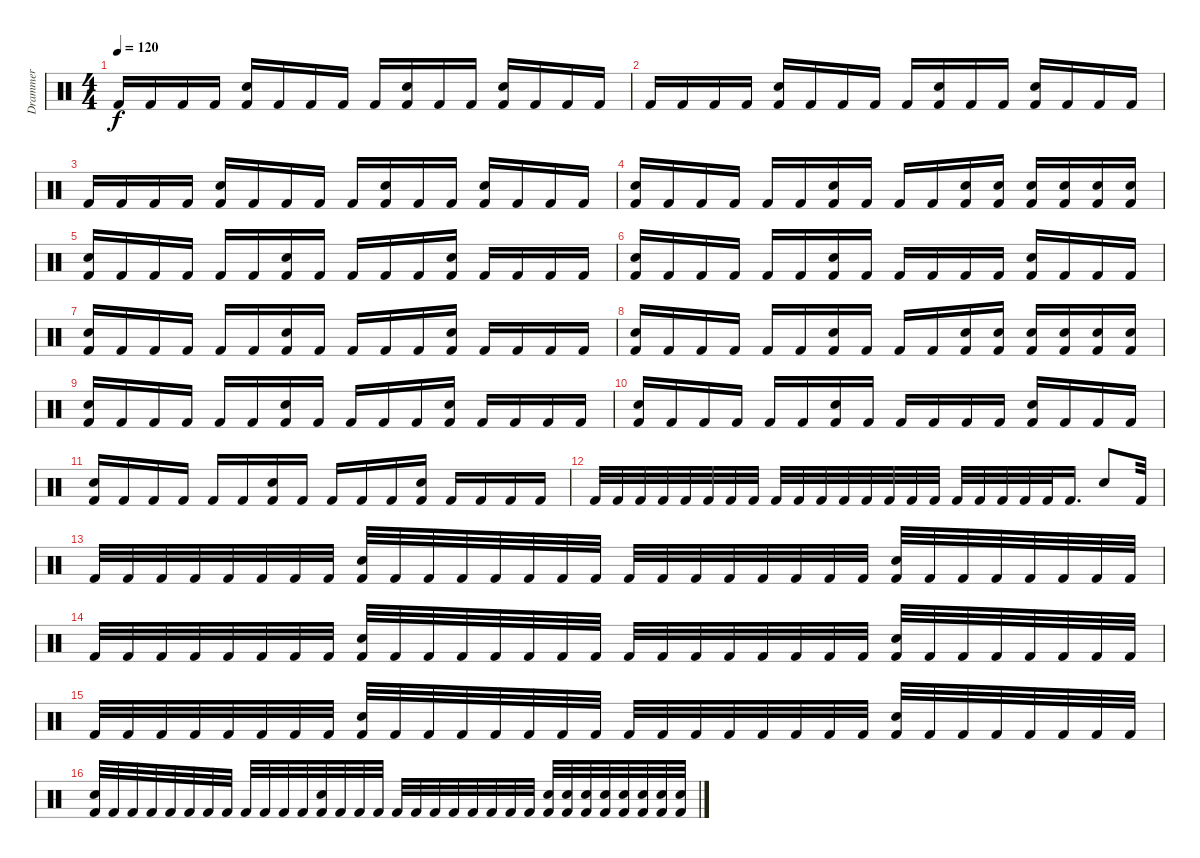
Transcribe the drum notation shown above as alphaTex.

\track ("Drammer" "Drammer") {instrument percussion}
\staff {score}
\articulation defaults
\ts (4 4)
\tempo 120
\clef neutral
\ks c "Kick (hit) 2".16{dy f} "Kick (hit) 2".16 "Kick (hit) 2".16 "Kick (hit) 2".16
("Snare (hit) 2" "Kick (hit) 2").16 "Kick (hit) 2".16 "Kick (hit) 2".16 "Kick (hit) 2".16 "Kick (hit) 2".16 ("Snare (hit) 2" "Kick (hit) 2").16 "Kick (hit) 2".16 "Kick (hit) 2".16 ("Snare (hit) 2" "Kick (hit) 2").16 "Kick (hit) 2".16 "Kick (hit) 2".16 "Kick (hit) 2".16 |
"Kick (hit) 2".16 "Kick (hit) 2".16 "Kick (hit) 2".16 "Kick (hit) 2".16 ("Snare (hit) 2" "Kick (hit) 2").16 "Kick (hit) 2".16 "Kick (hit) 2".16 "Kick (hit) 2".16 "Kick (hit) 2".16 ("Snare (hit) 2" "Kick (hit) 2").16 "Kick (hit) 2".16 "Kick (hit) 2".16 ("Snare (hit) 2" "Kick (hit) 2").16 "Kick (hit) 2".16 "Kick (hit) 2".16 "Kick (hit) 2".16 |
"Kick (hit) 2".16 "Kick (hit) 2".16 "Kick (hit) 2".16 "Kick (hit) 2".16 ("Snare (hit) 2" "Kick (hit) 2").16 "Kick (hit) 2".16 "Kick (hit) 2".16 "Kick (hit) 2".16 "Kick (hit) 2".16 ("Snare (hit) 2" "Kick (hit) 2").16 "Kick (hit) 2".16 "Kick (hit) 2".16 ("Snare (hit) 2" "Kick (hit) 2").16 "Kick (hit) 2".16 "Kick (hit) 2".16 "Kick (hit) 2".16 |
("Snare (hit) 2" "Kick (hit) 2").16 "Kick (hit) 2".16 "Kick (hit) 2".16 "Kick (hit) 2".16 "Kick (hit) 2".16 "Kick (hit) 2".16 ("Snare (hit) 2" "Kick (hit) 2").16 "Kick (hit) 2".16 "Kick (hit) 2".16 "Kick (hit) 2".16 ("Snare (hit) 2" "Kick (hit) 2").16 ("Snare (hit) 2" "Kick (hit) 2").16 ("Snare (hit) 2" "Kick (hit) 2").16 ("Snare (hit) 2" "Kick (hit) 2").16 ("Snare (hit) 2" "Kick (hit) 2").16 ("Snare (hit) 2" "Kick (hit) 2").16 |
("Snare (hit) 2" "Kick (hit) 2").16 "Kick (hit) 2".16 "Kick (hit) 2".16 "Kick (hit) 2".16 "Kick (hit) 2".16 "Kick (hit) 2".16 ("Snare (hit) 2" "Kick (hit) 2").16 "Kick (hit) 2".16 "Kick (hit) 2".16 "Kick (hit) 2".16 "Kick (hit) 2".16 ("Snare (hit) 2" "Kick (hit) 2").16 "Kick (hit) 2".16 "Kick (hit) 2".16 "Kick (hit) 2".16 "Kick (hit) 2".16 |
("Snare (hit) 2" "Kick (hit) 2").16 "Kick (hit) 2".16 "Kick (hit) 2".16 "Kick (hit) 2".16 "Kick (hit) 2".16 "Kick (hit) 2".16 ("Snare (hit) 2" "Kick (hit) 2").16 "Kick (hit) 2".16 "Kick (hit) 2".16 "Kick (hit) 2".16 "Kick (hit) 2".16 "Kick (hit) 2".16 ("Snare (hit) 2" "Kick (hit) 2").16 "Kick (hit) 2".16 "Kick (hit) 2".16 "Kick (hit) 2".16 |
("Snare (hit) 2" "Kick (hit) 2").16 "Kick (hit) 2".16 "Kick (hit) 2".16 "Kick (hit) 2".16 "Kick (hit) 2".16 "Kick (hit) 2".16 ("Snare (hit) 2" "Kick (hit) 2").16 "Kick (hit) 2".16 "Kick (hit) 2".16 "Kick (hit) 2".16 "Kick (hit) 2".16 ("Snare (hit) 2" "Kick (hit) 2").16 "Kick (hit) 2".16 "Kick (hit) 2".16 "Kick (hit) 2".16 "Kick (hit) 2".16 |
("Snare (hit) 2" "Kick (hit) 2").16 "Kick (hit) 2".16 "Kick (hit) 2".16 "Kick (hit) 2".16 "Kick (hit) 2".16 "Kick (hit) 2".16 ("Snare (hit) 2" "Kick (hit) 2").16 "Kick (hit) 2".16 "Kick (hit) 2".16 "Kick (hit) 2".16 ("Snare (hit) 2" "Kick (hit) 2").16 ("Snare (hit) 2" "Kick (hit) 2").16 ("Snare (hit) 2" "Kick (hit) 2").16 ("Snare (hit) 2" "Kick (hit) 2").16 ("Snare (hit) 2" "Kick (hit) 2").16 ("Snare (hit) 2" "Kick (hit) 2").16 |
("Snare (hit) 2" "Kick (hit) 2").16 "Kick (hit) 2".16 "Kick (hit) 2".16 "Kick (hit) 2".16 "Kick (hit) 2".16 "Kick (hit) 2".16 ("Snare (hit) 2" "Kick (hit) 2").16 "Kick (hit) 2".16 "Kick (hit) 2".16 "Kick (hit) 2".16 "Kick (hit) 2".16 ("Snare (hit) 2" "Kick (hit) 2").16 "Kick (hit) 2".16 "Kick (hit) 2".16 "Kick (hit) 2".16 "Kick (hit) 2".16 |
("Snare (hit) 2" "Kick (hit) 2").16 "Kick (hit) 2".16 "Kick (hit) 2".16 "Kick (hit) 2".16 "Kick (hit) 2".16 "Kick (hit) 2".16 ("Snare (hit) 2" "Kick (hit) 2").16 "Kick (hit) 2".16 "Kick (hit) 2".16 "Kick (hit) 2".16 "Kick (hit) 2".16 "Kick (hit) 2".16 ("Snare (hit) 2" "Kick (hit) 2").16 "Kick (hit) 2".16 "Kick (hit) 2".16 "Kick (hit) 2".16 |
("Snare (hit) 2" "Kick (hit) 2").16 "Kick (hit) 2".16 "Kick (hit) 2".16 "Kick (hit) 2".16 "Kick (hit) 2".16 "Kick (hit) 2".16 ("Snare (hit) 2" "Kick (hit) 2").16 "Kick (hit) 2".16 "Kick (hit) 2".16 "Kick (hit) 2".16 "Kick (hit) 2".16 ("Snare (hit) 2" "Kick (hit) 2").16 "Kick (hit) 2".16 "Kick (hit) 2".16 "Kick (hit) 2".16 "Kick (hit) 2".16 |
"Kick (hit) 2".32 "Kick (hit) 2".32 "Kick (hit) 2".32 "Kick (hit) 2".32 "Kick (hit) 2".32 "Kick (hit) 2".32 "Kick (hit) 2".32 "Kick (hit) 2".32 "Kick (hit) 2".32 "Kick (hit) 2".32 "Kick (hit) 2".32 "Kick (hit) 2".32 "Kick (hit) 2".32 "Kick (hit) 2".32 "Kick (hit) 2".32 "Kick (hit) 2".32 "Kick (hit) 2".32 "Kick (hit) 2".32 "Kick (hit) 2".32 "Kick (hit) 2".32 "Kick (hit) 2".32 "Kick (hit) 2".16{d} "Snare (hit) 2".8 "Kick (hit) 2".32 |
"Kick (hit) 2".32 "Kick (hit) 2".32 "Kick (hit) 2".32 "Kick (hit) 2".32 "Kick (hit) 2".32 "Kick (hit) 2".32 "Kick (hit) 2".32 "Kick (hit) 2".32 ("Snare (hit) 2" "Kick (hit) 2").32 "Kick (hit) 2".32 "Kick (hit) 2".32 "Kick (hit) 2".32 "Kick (hit) 2".32 "Kick (hit) 2".32 "Kick (hit) 2".32 "Kick (hit) 2".32 "Kick (hit) 2".32 "Kick (hit) 2".32 "Kick (hit) 2".32 "Kick (hit) 2".32 "Kick (hit) 2".32 "Kick (hit) 2".32 "Kick (hit) 2".32 "Kick (hit) 2".32 ("Snare (hit) 2" "Kick (hit) 2").32 "Kick (hit) 2".32 "Kick (hit) 2".32 "Kick (hit) 2".32 "Kick (hit) 2".32 "Kick (hit) 2".32 "Kick (hit) 2".32 "Kick (hit) 2".32 |
"Kick (hit) 2".32 "Kick (hit) 2".32 "Kick (hit) 2".32 "Kick (hit) 2".32 "Kick (hit) 2".32 "Kick (hit) 2".32 "Kick (hit) 2".32 "Kick (hit) 2".32 ("Snare (hit) 2" "Kick (hit) 2").32 "Kick (hit) 2".32 "Kick (hit) 2".32 "Kick (hit) 2".32 "Kick (hit) 2".32 "Kick (hit) 2".32 "Kick (hit) 2".32 "Kick (hit) 2".32 "Kick (hit) 2".32 "Kick (hit) 2".32 "Kick (hit) 2".32 "Kick (hit) 2".32 "Kick (hit) 2".32 "Kick (hit) 2".32 "Kick (hit) 2".32 "Kick (hit) 2".32 ("Snare (hit) 2" "Kick (hit) 2").32 "Kick (hit) 2".32 "Kick (hit) 2".32 "Kick (hit) 2".32 "Kick (hit) 2".32 "Kick (hit) 2".32 "Kick (hit) 2".32 "Kick (hit) 2".32 |
"Kick (hit) 2".32 "Kick (hit) 2".32 "Kick (hit) 2".32 "Kick (hit) 2".32 "Kick (hit) 2".32 "Kick (hit) 2".32 "Kick (hit) 2".32 "Kick (hit) 2".32 ("Snare (hit) 2" "Kick (hit) 2").32 "Kick (hit) 2".32 "Kick (hit) 2".32 "Kick (hit) 2".32 "Kick (hit) 2".32 "Kick (hit) 2".32 "Kick (hit) 2".32 "Kick (hit) 2".32 "Kick (hit) 2".32 "Kick (hit) 2".32 "Kick (hit) 2".32 "Kick (hit) 2".32 "Kick (hit) 2".32 "Kick (hit) 2".32 "Kick (hit) 2".32 "Kick (hit) 2".32 ("Snare (hit) 2" "Kick (hit) 2").32 "Kick (hit) 2".32 "Kick (hit) 2".32 "Kick (hit) 2".32 "Kick (hit) 2".32 "Kick (hit) 2".32 "Kick (hit) 2".32 "Kick (hit) 2".32 |
("Snare (hit) 2" "Kick (hit) 2").32 "Kick (hit) 2".32 "Kick (hit) 2".32 "Kick (hit) 2".32 "Kick (hit) 2".32 "Kick (hit) 2".32 "Kick (hit) 2".32 "Kick (hit) 2".32 "Kick (hit) 2".32 "Kick (hit) 2".32 "Kick (hit) 2".32 "Kick (hit) 2".32 ("Snare (hit) 2" "Kick (hit) 2").32 "Kick (hit) 2".32 "Kick (hit) 2".32 "Kick (hit) 2".32 "Kick (hit) 2".32 "Kick (hit) 2".32 "Kick (hit) 2".32 "Kick (hit) 2".32 "Kick (hit) 2".32 "Kick (hit) 2".32 "Kick (hit) 2".32 "Kick (hit) 2".32 ("Snare (hit) 2" "Kick (hit) 2").32 ("Snare (hit) 2" "Kick (hit) 2").32 ("Snare (hit) 2" "Kick (hit) 2").32 ("Snare (hit) 2" "Kick (hit) 2").32 ("Snare (hit) 2" "Kick (hit) 2").32 ("Snare (hit) 2" "Kick (hit) 2").32 ("Snare (hit) 2" "Kick (hit) 2").32 ("Snare (hit) 2" "Kick (hit) 2").32
